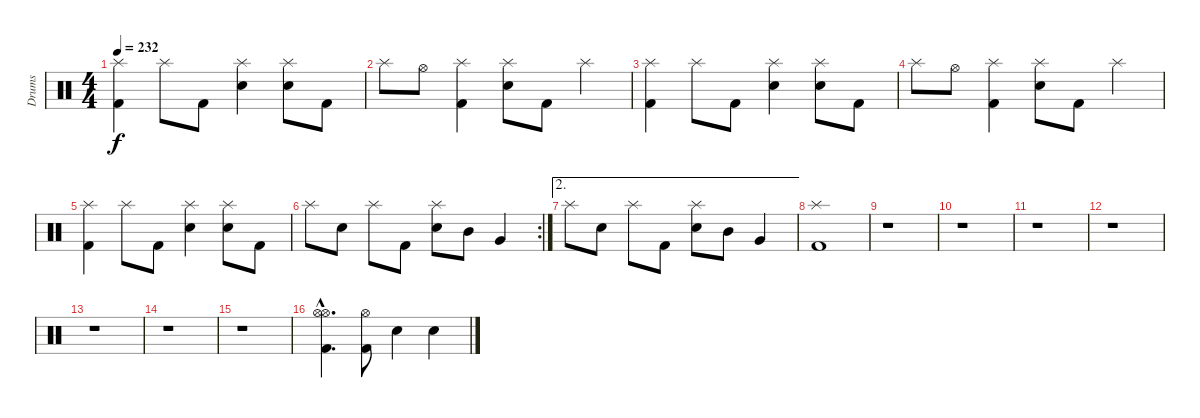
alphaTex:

\track ("Drums" "Drums") {instrument percussion}
\staff {score}
\articulation defaults
\ts (4 4)
\tempo 232
\clef neutral
\ks c
("Splash (hit)" "Kick (hit) 2").4{dy f} "Splash (hit)".8 "Kick (hit) 2".8 ("Splash (hit)" "Electric Snare (hit)").4 ("Splash (hit)" "Electric Snare (hit)").8 "Kick (hit) 2".8 |
"Splash (hit)".8 "Hi-Hat (open)".8 ("Splash (hit)" "Kick (hit) 2").4 ("Splash (hit)" "Electric Snare (hit)").8 "Kick (hit) 2".8 "Splash (hit)".4 |
("Splash (hit)" "Kick (hit) 2").4 "Splash (hit)".8 "Kick (hit) 2".8 ("Splash (hit)" "Electric Snare (hit)").4 ("Splash (hit)" "Electric Snare (hit)").8 "Kick (hit) 2".8 |
"Splash (hit)".8 "Hi-Hat (open)".8 ("Splash (hit)" "Kick (hit) 2").4 ("Splash (hit)" "Electric Snare (hit)").8 "Kick (hit) 2".8 "Splash (hit)".4 |
("Splash (hit)" "Kick (hit) 2").4 "Splash (hit)".8 "Kick (hit) 2".8 ("Splash (hit)" "Electric Snare (hit)").4 ("Splash (hit)" "Electric Snare (hit)").8 "Kick (hit) 2".8 |
\rc 2 "Splash (hit)".8 "Electric Snare (hit)".8 "Splash (hit)".8 "Kick (hit) 2".8
("Splash (hit)" "Electric Snare (hit)").8 "Mid Tom (hit)".8 "Very Low Tom (hit)".4 |
\ae 2 "Splash (hit)".8 "Electric Snare (hit)".8 "Splash (hit)".8 "Kick (hit) 2".8
("Splash (hit)" "Electric Snare (hit)").8 "Mid Tom (hit)".8 "Very Low Tom (hit)".4 |
("Splash (hit)" "Kick (hit) 2").1 |
r.1 |
r.1 |
r.1 |
r.1 |
r.1 |
r.1 |
r.1 |
("Hi-Hat (open)"{hac} "Hi-Hat (open)"{hac} "Kick (hit) 2"{hac}).4{d} ("Hi-Hat (open)" "Kick (hit) 2").8 "Electric Snare (hit)".4 "Electric Snare (hit)".4
